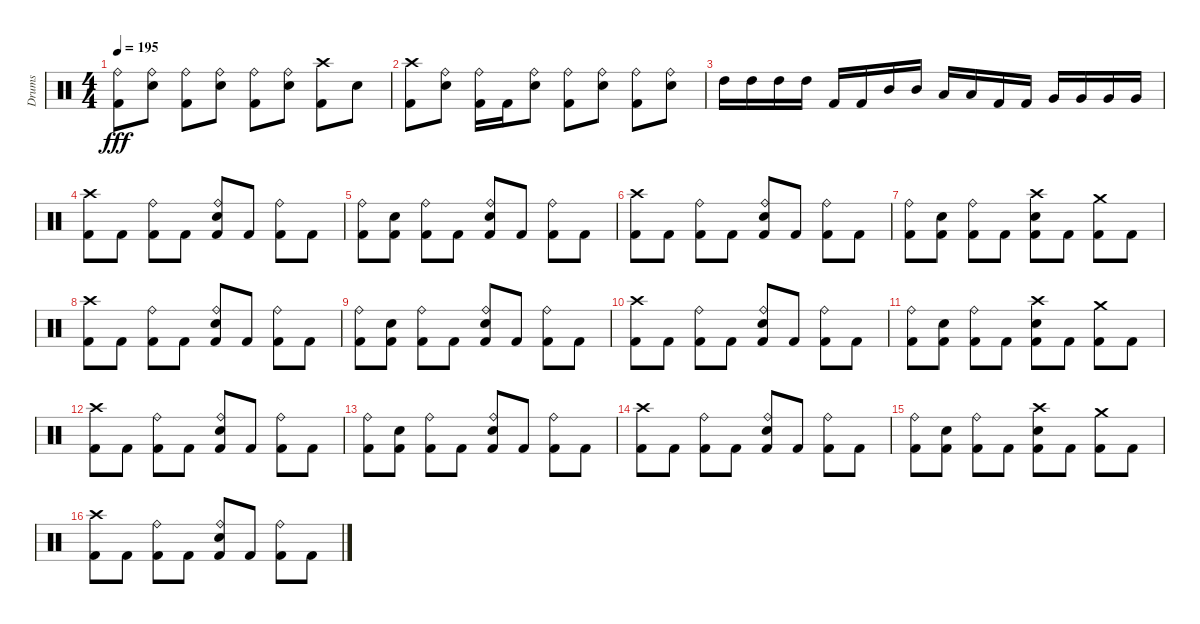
\track ("Drums" "Drums") {instrument percussion}
\staff {score}
\articulation defaults
\ts (4 4)
\tempo 195
\clef neutral
\ks c
("Kick (hit) 2" "Ride (bell)").8{dy fff} ("Metronome (bell)" "Ride (bell)").8 ("Kick (hit) 2" "Ride (bell)").8 ("Metronome (bell)" "Ride (bell)").8 ("Kick (hit) 2" "Ride (bell)").8 ("Metronome (bell)" "Ride (bell)").8 ("Kick (hit) 2" "Crash high (hit)").8 "Metronome (bell)".8 |
("Kick (hit) 2" "Crash high (hit)").8 ("Metronome (bell)" "Ride (bell)").8 ("Kick (hit) 2" "Ride (bell)").16 "Kick (hit) 2".16 ("Metronome (bell)" "Ride (bell)").8 ("Kick (hit) 2" "Ride (bell)").8 ("Metronome (bell)" "Ride (bell)").8 ("Kick (hit) 2" "Ride (bell)").8 ("Metronome (bell)" "Ride (bell)").8 |
"High Tom (hit)".16 "High Tom (hit)".16 "High Tom (hit)".16 "High Tom (hit)".16 "Kick (hit) 2".16 "Kick (hit) 2".16 "Mid Tom (hit)".16 "Mid Tom (hit)".16 "Low Tom (hit)".16 "Low Tom (hit)".16 "Kick (hit) 2".16 "Kick (hit) 2".16 "Very Low Tom (hit)".16 "Very Low Tom (hit)".16 "Very Low Tom (hit)".16 "Very Low Tom (hit)".16 |
("Kick (hit) 2" "Crash high (hit)").8 "Kick (hit) 2".8 ("Kick (hit) 2" "Ride (bell)").8 "Kick (hit) 2".8 ("Metronome (bell)" "Kick (hit) 2" "Ride (bell)").8 "Kick (hit) 2".8 ("Kick (hit) 2" "Ride (bell)").8 "Kick (hit) 2".8 |
("Kick (hit) 2" "Ride (bell)").8 ("Metronome (bell)" "Kick (hit) 2").8 ("Kick (hit) 2" "Ride (bell)").8 "Kick (hit) 2".8 ("Metronome (bell)" "Kick (hit) 2" "Ride (bell)").8 "Kick (hit) 2".8 ("Kick (hit) 2" "Ride (bell)").8 "Kick (hit) 2".8 |
("Kick (hit) 2" "Crash high (hit)").8 "Kick (hit) 2".8 ("Kick (hit) 2" "Ride (bell)").8 "Kick (hit) 2".8 ("Metronome (bell)" "Kick (hit) 2" "Ride (bell)").8 "Kick (hit) 2".8 ("Kick (hit) 2" "Ride (bell)").8 "Kick (hit) 2".8 |
("Kick (hit) 2" "Ride (bell)").8 ("Metronome (bell)" "Kick (hit) 2").8 ("Kick (hit) 2" "Ride (bell)").8 "Kick (hit) 2".8 ("Metronome (bell)" "Kick (hit) 2" "Crash high (hit)").8 "Kick (hit) 2".8 ("Kick (hit) 2" "Crash medium (hit)").8 "Kick (hit) 2".8 |
("Kick (hit) 2" "Crash high (hit)").8 "Kick (hit) 2".8 ("Kick (hit) 2" "Ride (bell)").8 "Kick (hit) 2".8 ("Metronome (bell)" "Kick (hit) 2" "Ride (bell)").8 "Kick (hit) 2".8 ("Kick (hit) 2" "Ride (bell)").8 "Kick (hit) 2".8 |
("Kick (hit) 2" "Ride (bell)").8 ("Metronome (bell)" "Kick (hit) 2").8 ("Kick (hit) 2" "Ride (bell)").8 "Kick (hit) 2".8 ("Metronome (bell)" "Kick (hit) 2" "Ride (bell)").8 "Kick (hit) 2".8 ("Kick (hit) 2" "Ride (bell)").8 "Kick (hit) 2".8 |
("Kick (hit) 2" "Crash high (hit)").8 "Kick (hit) 2".8 ("Kick (hit) 2" "Ride (bell)").8 "Kick (hit) 2".8 ("Metronome (bell)" "Kick (hit) 2" "Ride (bell)").8 "Kick (hit) 2".8 ("Kick (hit) 2" "Ride (bell)").8 "Kick (hit) 2".8 |
("Kick (hit) 2" "Ride (bell)").8 ("Metronome (bell)" "Kick (hit) 2").8 ("Kick (hit) 2" "Ride (bell)").8 "Kick (hit) 2".8 ("Metronome (bell)" "Kick (hit) 2" "Crash high (hit)").8 "Kick (hit) 2".8 ("Kick (hit) 2" "Crash medium (hit)").8 "Kick (hit) 2".8 |
("Kick (hit) 2" "Crash high (hit)").8 "Kick (hit) 2".8 ("Kick (hit) 2" "Ride (bell)").8 "Kick (hit) 2".8 ("Metronome (bell)" "Kick (hit) 2" "Ride (bell)").8 "Kick (hit) 2".8 ("Kick (hit) 2" "Ride (bell)").8 "Kick (hit) 2".8 |
("Kick (hit) 2" "Ride (bell)").8 ("Metronome (bell)" "Kick (hit) 2").8 ("Kick (hit) 2" "Ride (bell)").8 "Kick (hit) 2".8 ("Metronome (bell)" "Kick (hit) 2" "Ride (bell)").8 "Kick (hit) 2".8 ("Kick (hit) 2" "Ride (bell)").8 "Kick (hit) 2".8 |
("Kick (hit) 2" "Crash high (hit)").8 "Kick (hit) 2".8 ("Kick (hit) 2" "Ride (bell)").8 "Kick (hit) 2".8 ("Metronome (bell)" "Kick (hit) 2" "Ride (bell)").8 "Kick (hit) 2".8 ("Kick (hit) 2" "Ride (bell)").8 "Kick (hit) 2".8 |
("Kick (hit) 2" "Ride (bell)").8 ("Metronome (bell)" "Kick (hit) 2").8 ("Kick (hit) 2" "Ride (bell)").8 "Kick (hit) 2".8 ("Metronome (bell)" "Kick (hit) 2" "Crash high (hit)").8 "Kick (hit) 2".8 ("Kick (hit) 2" "Crash medium (hit)").8 "Kick (hit) 2".8 |
("Kick (hit) 2" "Crash high (hit)").8 "Kick (hit) 2".8 ("Kick (hit) 2" "Ride (bell)").8 "Kick (hit) 2".8 ("Metronome (bell)" "Kick (hit) 2" "Ride (bell)").8 "Kick (hit) 2".8 ("Kick (hit) 2" "Ride (bell)").8 "Kick (hit) 2".8
